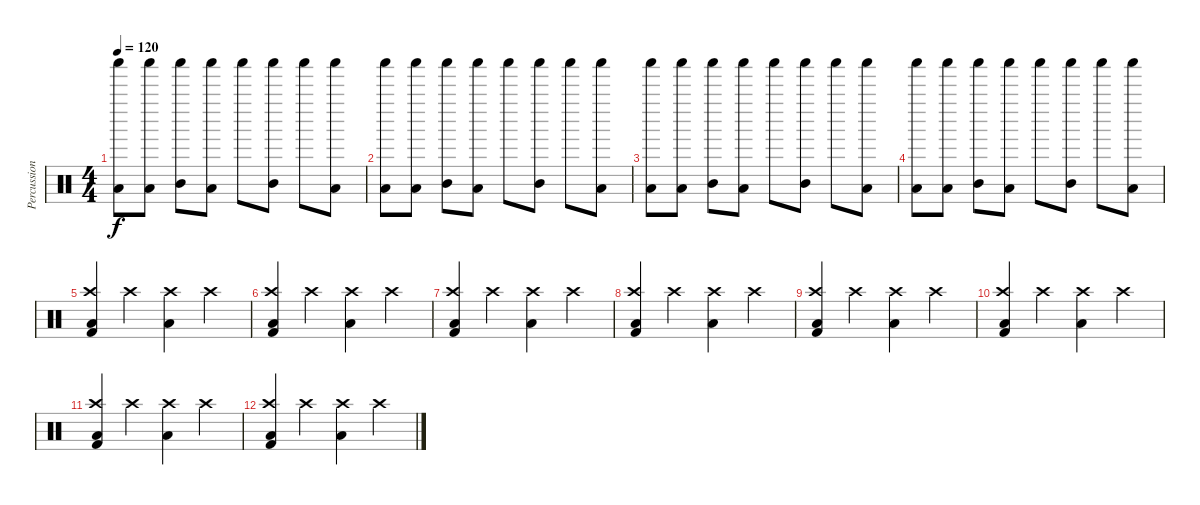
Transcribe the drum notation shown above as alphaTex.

\track ("Percussion" "Percussion") {instrument percussion}
\staff {score}
\articulation defaults
\ts (4 4)
\tempo 120
\clef neutral
\ks c
("Low Tom (hit)" "Shaker (hit)").8{dy f} ("Low Tom (hit)" "Shaker (hit)").8 ("Mid Tom (hit)" "Shaker (hit)").8 ("Low Tom (hit)" "Shaker (hit)").8 "Shaker (hit)".8 ("Mid Tom (hit)" "Shaker (hit)").8 "Shaker (hit)".8 ("Low Tom (hit)" "Shaker (hit)").8 |
("Low Tom (hit)" "Shaker (hit)").8 ("Low Tom (hit)" "Shaker (hit)").8 ("Mid Tom (hit)" "Shaker (hit)").8 ("Low Tom (hit)" "Shaker (hit)").8 "Shaker (hit)".8 ("Mid Tom (hit)" "Shaker (hit)").8 "Shaker (hit)".8 ("Low Tom (hit)" "Shaker (hit)").8 |
("Low Tom (hit)" "Shaker (hit)").8 ("Low Tom (hit)" "Shaker (hit)").8 ("Mid Tom (hit)" "Shaker (hit)").8 ("Low Tom (hit)" "Shaker (hit)").8 "Shaker (hit)".8 ("Mid Tom (hit)" "Shaker (hit)").8 "Shaker (hit)".8 ("Low Tom (hit)" "Shaker (hit)").8 |
("Low Tom (hit)" "Shaker (hit)").8 ("Low Tom (hit)" "Shaker (hit)").8 ("Mid Tom (hit)" "Shaker (hit)").8 ("Low Tom (hit)" "Shaker (hit)").8 "Shaker (hit)".8 ("Mid Tom (hit)" "Shaker (hit)").8 "Shaker (hit)".8 ("Low Tom (hit)" "Shaker (hit)").8 |
("Crash high (hit)" "Low Tom (hit)" "Kick (hit) 2").4 "Crash high (hit)".4 ("Crash high (hit)" "Low Tom (hit)").4 "Crash high (hit)".4 |
("Crash high (hit)" "Low Tom (hit)" "Kick (hit) 2").4 "Crash high (hit)".4 ("Crash high (hit)" "Low Tom (hit)").4 "Crash high (hit)".4 |
("Crash high (hit)" "Low Tom (hit)" "Kick (hit) 2").4 "Crash high (hit)".4 ("Crash high (hit)" "Low Tom (hit)").4 "Crash high (hit)".4 |
("Crash high (hit)" "Low Tom (hit)" "Kick (hit) 2").4 "Crash high (hit)".4 ("Crash high (hit)" "Low Tom (hit)").4 "Crash high (hit)".4 |
("Crash high (hit)" "Low Tom (hit)" "Kick (hit) 2").4 "Crash high (hit)".4 ("Crash high (hit)" "Low Tom (hit)").4 "Crash high (hit)".4 |
("Crash high (hit)" "Low Tom (hit)" "Kick (hit) 2").4 "Crash high (hit)".4 ("Crash high (hit)" "Low Tom (hit)").4 "Crash high (hit)".4 |
("Crash high (hit)" "Low Tom (hit)" "Kick (hit) 2").4 "Crash high (hit)".4 ("Crash high (hit)" "Low Tom (hit)").4 "Crash high (hit)".4 |
("Crash high (hit)" "Low Tom (hit)" "Kick (hit) 2").4 "Crash high (hit)".4 ("Crash high (hit)" "Low Tom (hit)").4 "Crash high (hit)".4
